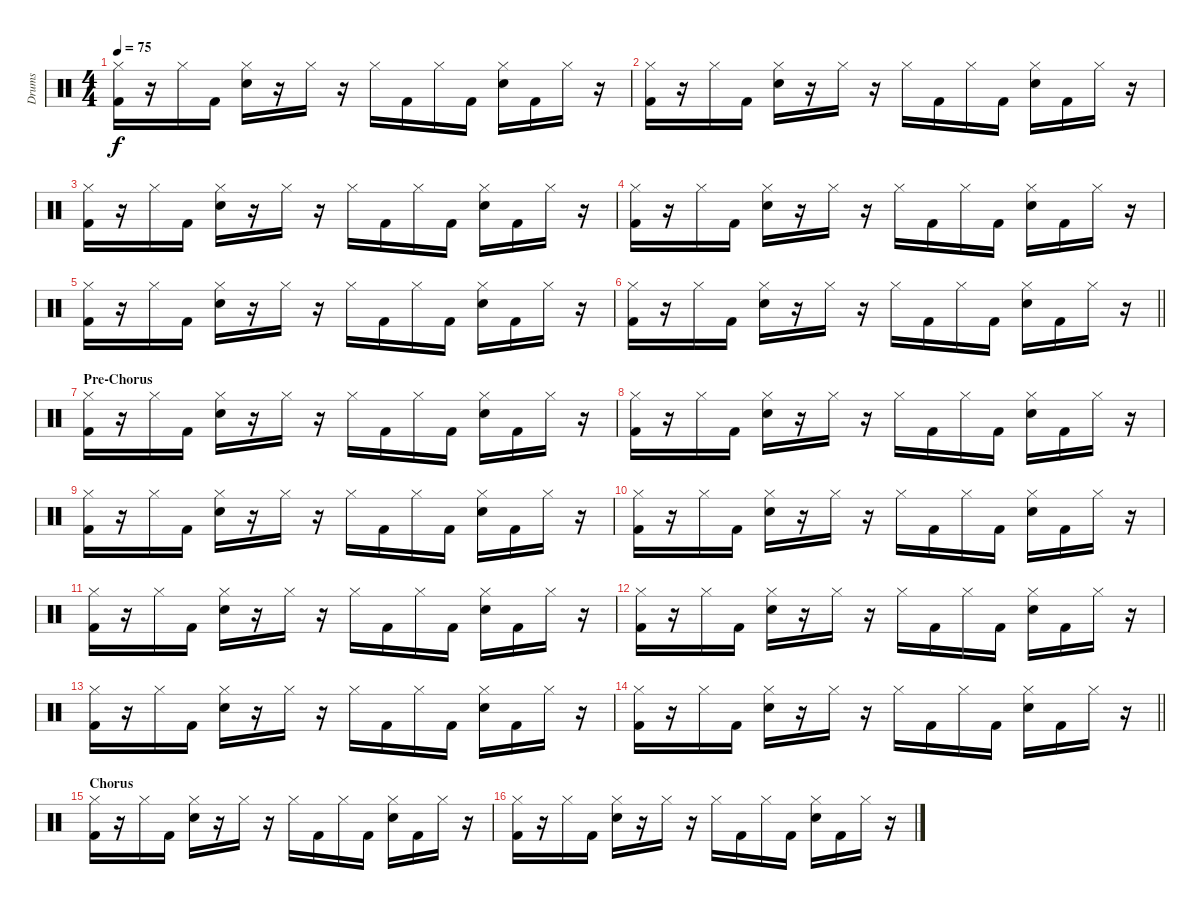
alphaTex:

\track ("Drums" "Drums") {instrument percussion}
\staff {score}
\articulation defaults
\ts (4 4)
\tempo 75
\clef neutral
\ks c
("Hi-Hat (closed)" "Kick (hit) 2").16{dy f} r.16 "Hi-Hat (closed)".16 "Kick (hit) 2".16 ("Hi-Hat (closed)" "Electric Snare (hit)").16 r.16 "Hi-Hat (closed)".16 r.16 "Hi-Hat (closed)".16 "Kick (hit) 2".16 "Hi-Hat (closed)".16 "Kick (hit) 2".16 ("Hi-Hat (closed)" "Electric Snare (hit)").16 "Kick (hit) 2".16 "Hi-Hat (closed)".16 r.16 |
("Hi-Hat (closed)" "Kick (hit) 2").16 r.16 "Hi-Hat (closed)".16 "Kick (hit) 2".16 ("Hi-Hat (closed)" "Electric Snare (hit)").16 r.16 "Hi-Hat (closed)".16 r.16 "Hi-Hat (closed)".16 "Kick (hit) 2".16 "Hi-Hat (closed)".16 "Kick (hit) 2".16 ("Hi-Hat (closed)" "Electric Snare (hit)").16 "Kick (hit) 2".16 "Hi-Hat (closed)".16 r.16 |
("Hi-Hat (closed)" "Kick (hit) 2").16 r.16 "Hi-Hat (closed)".16 "Kick (hit) 2".16 ("Hi-Hat (closed)" "Electric Snare (hit)").16 r.16 "Hi-Hat (closed)".16 r.16 "Hi-Hat (closed)".16 "Kick (hit) 2".16 "Hi-Hat (closed)".16 "Kick (hit) 2".16 ("Hi-Hat (closed)" "Electric Snare (hit)").16 "Kick (hit) 2".16 "Hi-Hat (closed)".16 r.16 |
("Hi-Hat (closed)" "Kick (hit) 2").16 r.16 "Hi-Hat (closed)".16 "Kick (hit) 2".16 ("Hi-Hat (closed)" "Electric Snare (hit)").16 r.16 "Hi-Hat (closed)".16 r.16 "Hi-Hat (closed)".16 "Kick (hit) 2".16 "Hi-Hat (closed)".16 "Kick (hit) 2".16 ("Hi-Hat (closed)" "Electric Snare (hit)").16 "Kick (hit) 2".16 "Hi-Hat (closed)".16 r.16 |
("Hi-Hat (closed)" "Kick (hit) 2").16 r.16 "Hi-Hat (closed)".16 "Kick (hit) 2".16 ("Hi-Hat (closed)" "Electric Snare (hit)").16 r.16 "Hi-Hat (closed)".16 r.16 "Hi-Hat (closed)".16 "Kick (hit) 2".16 "Hi-Hat (closed)".16 "Kick (hit) 2".16 ("Hi-Hat (closed)" "Electric Snare (hit)").16 "Kick (hit) 2".16 "Hi-Hat (closed)".16 r.16 |
\barLineRight lightlight
("Hi-Hat (closed)" "Kick (hit) 2").16 r.16 "Hi-Hat (closed)".16 "Kick (hit) 2".16 ("Hi-Hat (closed)" "Electric Snare (hit)").16 r.16 "Hi-Hat (closed)".16 r.16 "Hi-Hat (closed)".16 "Kick (hit) 2".16 "Hi-Hat (closed)".16 "Kick (hit) 2".16 ("Hi-Hat (closed)" "Electric Snare (hit)").16 "Kick (hit) 2".16 "Hi-Hat (closed)".16 r.16 |
\section ("" "Pre-Chorus")
("Hi-Hat (closed)" "Kick (hit) 2").16 r.16 "Hi-Hat (closed)".16 "Kick (hit) 2".16 ("Hi-Hat (closed)" "Electric Snare (hit)").16 r.16 "Hi-Hat (closed)".16 r.16 "Hi-Hat (closed)".16 "Kick (hit) 2".16 "Hi-Hat (closed)".16 "Kick (hit) 2".16 ("Hi-Hat (closed)" "Electric Snare (hit)").16 "Kick (hit) 2".16 "Hi-Hat (closed)".16 r.16 |
("Hi-Hat (closed)" "Kick (hit) 2").16 r.16 "Hi-Hat (closed)".16 "Kick (hit) 2".16 ("Hi-Hat (closed)" "Electric Snare (hit)").16 r.16 "Hi-Hat (closed)".16 r.16 "Hi-Hat (closed)".16 "Kick (hit) 2".16 "Hi-Hat (closed)".16 "Kick (hit) 2".16 ("Hi-Hat (closed)" "Electric Snare (hit)").16 "Kick (hit) 2".16 "Hi-Hat (closed)".16 r.16 |
("Hi-Hat (closed)" "Kick (hit) 2").16 r.16 "Hi-Hat (closed)".16 "Kick (hit) 2".16 ("Hi-Hat (closed)" "Electric Snare (hit)").16 r.16 "Hi-Hat (closed)".16 r.16 "Hi-Hat (closed)".16 "Kick (hit) 2".16 "Hi-Hat (closed)".16 "Kick (hit) 2".16 ("Hi-Hat (closed)" "Electric Snare (hit)").16 "Kick (hit) 2".16 "Hi-Hat (closed)".16 r.16 |
("Hi-Hat (closed)" "Kick (hit) 2").16 r.16 "Hi-Hat (closed)".16 "Kick (hit) 2".16 ("Hi-Hat (closed)" "Electric Snare (hit)").16 r.16 "Hi-Hat (closed)".16 r.16 "Hi-Hat (closed)".16 "Kick (hit) 2".16 "Hi-Hat (closed)".16 "Kick (hit) 2".16 ("Hi-Hat (closed)" "Electric Snare (hit)").16 "Kick (hit) 2".16 "Hi-Hat (closed)".16 r.16 |
("Hi-Hat (closed)" "Kick (hit) 2").16 r.16 "Hi-Hat (closed)".16 "Kick (hit) 2".16 ("Hi-Hat (closed)" "Electric Snare (hit)").16 r.16 "Hi-Hat (closed)".16 r.16 "Hi-Hat (closed)".16 "Kick (hit) 2".16 "Hi-Hat (closed)".16 "Kick (hit) 2".16 ("Hi-Hat (closed)" "Electric Snare (hit)").16 "Kick (hit) 2".16 "Hi-Hat (closed)".16 r.16 |
("Hi-Hat (closed)" "Kick (hit) 2").16 r.16 "Hi-Hat (closed)".16 "Kick (hit) 2".16 ("Hi-Hat (closed)" "Electric Snare (hit)").16 r.16 "Hi-Hat (closed)".16 r.16 "Hi-Hat (closed)".16 "Kick (hit) 2".16 "Hi-Hat (closed)".16 "Kick (hit) 2".16 ("Hi-Hat (closed)" "Electric Snare (hit)").16 "Kick (hit) 2".16 "Hi-Hat (closed)".16 r.16 |
("Hi-Hat (closed)" "Kick (hit) 2").16 r.16 "Hi-Hat (closed)".16 "Kick (hit) 2".16 ("Hi-Hat (closed)" "Electric Snare (hit)").16 r.16 "Hi-Hat (closed)".16 r.16 "Hi-Hat (closed)".16 "Kick (hit) 2".16 "Hi-Hat (closed)".16 "Kick (hit) 2".16 ("Hi-Hat (closed)" "Electric Snare (hit)").16 "Kick (hit) 2".16 "Hi-Hat (closed)".16 r.16 |
\barLineRight lightlight
("Hi-Hat (closed)" "Kick (hit) 2").16 r.16 "Hi-Hat (closed)".16 "Kick (hit) 2".16 ("Hi-Hat (closed)" "Electric Snare (hit)").16 r.16 "Hi-Hat (closed)".16 r.16 "Hi-Hat (closed)".16 "Kick (hit) 2".16 "Hi-Hat (closed)".16 "Kick (hit) 2".16 ("Hi-Hat (closed)" "Electric Snare (hit)").16 "Kick (hit) 2".16 "Hi-Hat (closed)".16 r.16 |
\section ("" "Chorus")
("Hi-Hat (closed)" "Kick (hit) 2").16 r.16 "Hi-Hat (closed)".16 "Kick (hit) 2".16 ("Hi-Hat (closed)" "Electric Snare (hit)").16 r.16 "Hi-Hat (closed)".16 r.16 "Hi-Hat (closed)".16 "Kick (hit) 2".16 "Hi-Hat (closed)".16 "Kick (hit) 2".16 ("Hi-Hat (closed)" "Electric Snare (hit)").16 "Kick (hit) 2".16 "Hi-Hat (closed)".16 r.16 |
("Hi-Hat (closed)" "Kick (hit) 2").16 r.16 "Hi-Hat (closed)".16 "Kick (hit) 2".16 ("Hi-Hat (closed)" "Electric Snare (hit)").16 r.16 "Hi-Hat (closed)".16 r.16 "Hi-Hat (closed)".16 "Kick (hit) 2".16 "Hi-Hat (closed)".16 "Kick (hit) 2".16 ("Hi-Hat (closed)" "Electric Snare (hit)").16 "Kick (hit) 2".16 "Hi-Hat (closed)".16 r.16
